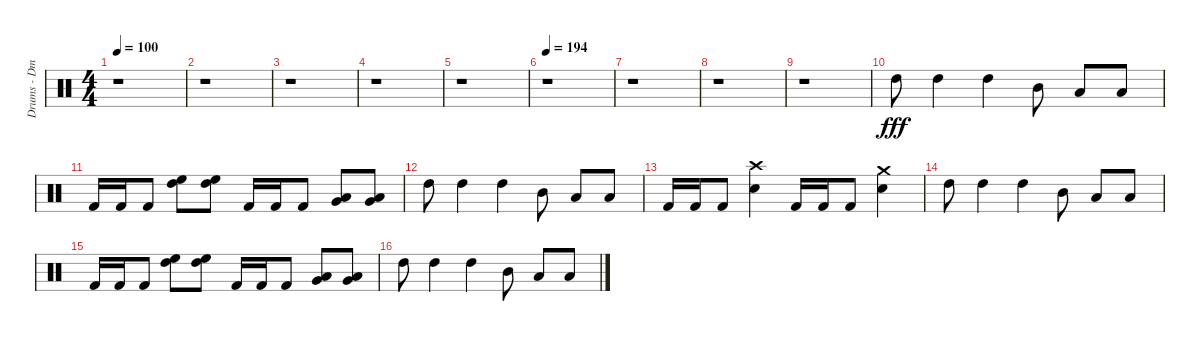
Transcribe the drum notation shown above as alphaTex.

\track ("Drums - Dmitriy Krivenkov" "Drums - Dm") {instrument percussion}
\staff {score}
\articulation defaults
\ts (4 4)
\tempo 100
\clef neutral
\ks c
r.1{dy fff} |
r.1 |
r.1 |
r.1 |
r.1 |
\tempo 194
r.1 |
r.1 |
r.1 |
r.1 |
"High Tom (hit)".8 "High Tom (hit)".4 "High Tom (hit)".4 "Mid Tom (hit)".8 "Low Tom (hit)".8 "Low Tom (hit)".8 |
"Kick (hit) 2".16 "Kick (hit) 2".16 "Kick (hit) 2".8 ("High Floor Tom (hit)" "High Tom (hit)").8 ("High Tom (hit)" "High Floor Tom (hit)").8 "Kick (hit) 2".16 "Kick (hit) 2".16 "Kick (hit) 2".8 ("Very Low Tom (hit)" "Low Tom (hit)").8 ("Very Low Tom (hit)" "Low Tom (hit)").8 |
"High Tom (hit)".8 "High Tom (hit)".4 "High Tom (hit)".4 "Mid Tom (hit)".8 "Low Tom (hit)".8 "Low Tom (hit)".8 |
"Kick (hit) 2".16 "Kick (hit) 2".16 "Kick (hit) 2".8 ("Crash high (hit)" "Electric Snare (hit)").4 "Kick (hit) 2".16 "Kick (hit) 2".16 "Kick (hit) 2".8 ("Crash medium (hit)" "Electric Snare (hit)").4 |
"High Tom (hit)".8 "High Tom (hit)".4 "High Tom (hit)".4 "Mid Tom (hit)".8 "Low Tom (hit)".8 "Low Tom (hit)".8 |
"Kick (hit) 2".16 "Kick (hit) 2".16 "Kick (hit) 2".8 ("High Tom (hit)" "High Floor Tom (hit)").8 ("High Tom (hit)" "High Floor Tom (hit)").8 "Kick (hit) 2".16 "Kick (hit) 2".16 "Kick (hit) 2".8 ("Low Tom (hit)" "Very Low Tom (hit)").8 ("Low Tom (hit)" "Very Low Tom (hit)").8 |
"High Tom (hit)".8 "High Tom (hit)".4 "High Tom (hit)".4 "Mid Tom (hit)".8 "Low Tom (hit)".8 "Low Tom (hit)".8
